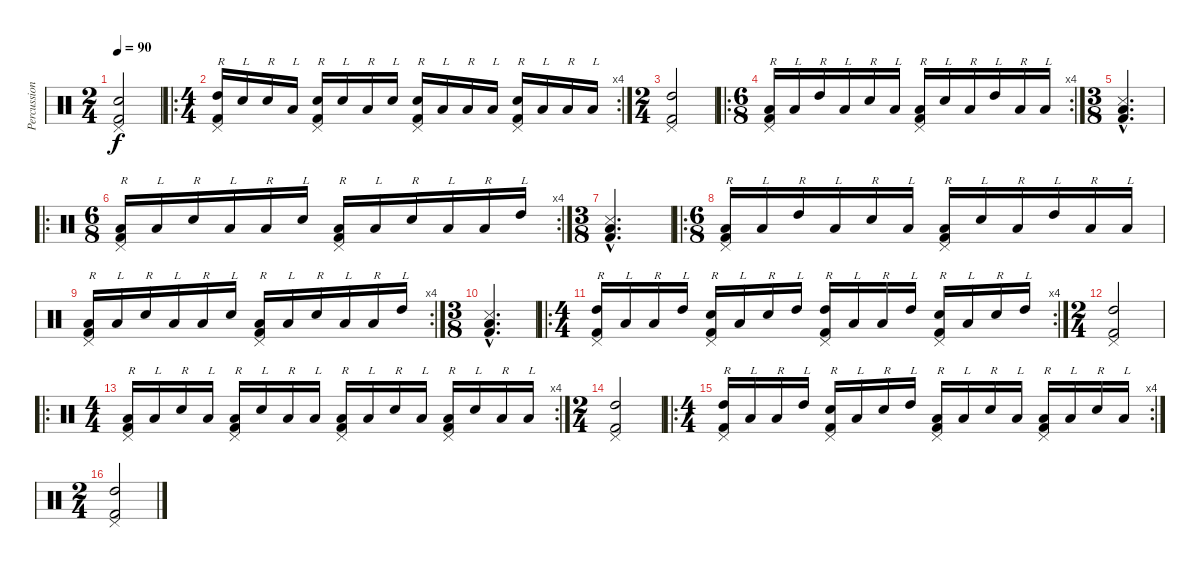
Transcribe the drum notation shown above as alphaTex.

\track ("Percussion" "Percussion") {instrument percussion}
\staff {score}
\articulation defaults
\ts (2 4)
\tempo 90
\clef neutral
\ks c
("Electric Snare (hit)" "Pedal Hi-Hat (hit)" "Kick (hit) 2").2{dy f} |
\ro
\rc 4
\ts (4 4)
("High Tom (hit)" "Pedal Hi-Hat (hit)" "Kick (hit) 2").16{txt "R"} "Electric Snare (hit)".16{txt "L"} "Electric Snare (hit)".16{txt "R"} "Low Floor Tom (hit)".16{txt "L"} ("Electric Snare (hit)" "Pedal Hi-Hat (hit)" "Kick (hit) 2").16{txt "R"} "Electric Snare (hit)".16{txt "L"} "Low Floor Tom (hit)".16{txt "R"} "Electric Snare (hit)".16{txt "L"} ("Electric Snare (hit)" "Pedal Hi-Hat (hit)" "Kick (hit) 2").16{txt "R"} "Low Floor Tom (hit)".16{txt "L"} "Low Floor Tom (hit)".16{txt "R"} "Low Floor Tom (hit)".16{txt "L"} ("Electric Snare (hit)" "Pedal Hi-Hat (hit)" "Kick (hit) 2").16{txt "R"} "Low Floor Tom (hit)".16{txt "L"} "Low Floor Tom (hit)".16{txt "R"} "Low Floor Tom (hit)".16{txt "L"} |
\ts (2 4)
("High Tom (hit)" "Pedal Hi-Hat (hit)" "Kick (hit) 2").2 |
\ro
\rc 4
\ts (6 8)
("Low Floor Tom (hit)" "Kick (hit) 2" "Pedal Hi-Hat (hit)").16{txt "R"} "Low Floor Tom (hit)".16{txt "L"} "High Tom (hit)".16{txt "R"} "Low Floor Tom (hit)".16{txt "L"} "Electric Snare (hit)".16{txt "R"} "Low Floor Tom (hit)".16{txt "L"} ("Low Floor Tom (hit)" "Kick (hit) 2" "Pedal Hi-Hat (hit)").16{txt "R"} "Electric Snare (hit)".16{txt "L"} "Low Floor Tom (hit)".16{txt "R"} "High Tom (hit)".16{txt "L"} "Low Floor Tom (hit)".16{txt "R"} "Low Floor Tom (hit)".16{txt "L"} |
\ts (3 8)
("Low Floor Tom (hit)"{hac} "Kick (hit) 2"{hac} "Metronome (hit)"{hac}).4{d} |
\ro
\rc 4
\ts (6 8)
("Low Floor Tom (hit)" "Kick (hit) 2" "Pedal Hi-Hat (hit)").16{txt "R"} "Low Floor Tom (hit)".16{txt "L"} "Electric Snare (hit)".16{txt "R"} "Low Floor Tom (hit)".16{txt "L"} "Low Floor Tom (hit)".16{txt "R"} "Electric Snare (hit)".16{txt "L"} ("Low Floor Tom (hit)" "Kick (hit) 2" "Pedal Hi-Hat (hit)").16{txt "R"} "Low Floor Tom (hit)".16{txt "L"} "Electric Snare (hit)".16{txt "R"} "Low Floor Tom (hit)".16{txt "L"} "Low Floor Tom (hit)".16{txt "R"} "High Tom (hit)".16{txt "L"} |
\ts (3 8)
("Low Floor Tom (hit)"{hac} "Kick (hit) 2"{hac} "Metronome (hit)"{hac}).4{d} |
\ro
\ts (6 8)
("Low Floor Tom (hit)" "Kick (hit) 2" "Pedal Hi-Hat (hit)").16{txt "R"} "Low Floor Tom (hit)".16{txt "L"} "High Tom (hit)".16{txt "R"} "Low Floor Tom (hit)".16{txt "L"} "Electric Snare (hit)".16{txt "R"} "Low Floor Tom (hit)".16{txt "L"} ("Low Floor Tom (hit)" "Kick (hit) 2" "Pedal Hi-Hat (hit)").16{txt "R"} "Electric Snare (hit)".16{txt "L"} "Low Floor Tom (hit)".16{txt "R"} "High Tom (hit)".16{txt "L"} "Low Floor Tom (hit)".16{txt "R"} "Low Floor Tom (hit)".16{txt "L"} |
\rc 4
("Low Floor Tom (hit)" "Kick (hit) 2" "Pedal Hi-Hat (hit)").16{txt "R"} "Low Floor Tom (hit)".16{txt "L"} "Electric Snare (hit)".16{txt "R"} "Low Floor Tom (hit)".16{txt "L"} "Low Floor Tom (hit)".16{txt "R"} "Electric Snare (hit)".16{txt "L"} ("Low Floor Tom (hit)" "Kick (hit) 2" "Pedal Hi-Hat (hit)").16{txt "R"} "Low Floor Tom (hit)".16{txt "L"} "Electric Snare (hit)".16{txt "R"} "Low Floor Tom (hit)".16{txt "L"} "Low Floor Tom (hit)".16{txt "R"} "High Tom (hit)".16{txt "L"} |
\ts (3 8)
("Low Floor Tom (hit)"{hac} "Kick (hit) 2"{hac} "Metronome (hit)"{hac}).4{d} |
\ro
\rc 4
\ts (4 4)
("High Tom (hit)" "Pedal Hi-Hat (hit)" "Kick (hit) 2").16{txt "R"} "Low Floor Tom (hit)".16{txt "L"} "Low Floor Tom (hit)".16{txt "R"} "High Tom (hit)".16{txt "L"} ("Electric Snare (hit)" "Pedal Hi-Hat (hit)" "Kick (hit) 2").16{txt "R"} "Low Floor Tom (hit)".16{txt "L"} "Electric Snare (hit)".16{txt "R"} "High Tom (hit)".16{txt "L"} ("High Tom (hit)" "Pedal Hi-Hat (hit)" "Kick (hit) 2").16{txt "R"} "Low Floor Tom (hit)".16{txt "L"} "Low Floor Tom (hit)".16{txt "R"} "High Tom (hit)".16{txt "L"} ("Electric Snare (hit)" "Pedal Hi-Hat (hit)" "Kick (hit) 2").16{txt "R"} "Low Floor Tom (hit)".16{txt "L"} "Electric Snare (hit)".16{txt "R"} "High Tom (hit)".16{txt "L"} |
\ts (2 4)
("High Tom (hit)" "Kick (hit) 2" "Pedal Hi-Hat (hit)").2 |
\ro
\rc 4
\ts (4 4)
("Low Floor Tom (hit)" "Pedal Hi-Hat (hit)" "Kick (hit) 2").16{txt "R"} "Low Floor Tom (hit)".16{txt "L"} "Electric Snare (hit)".16{txt "R"} "Low Floor Tom (hit)".16{txt "L"} ("Low Floor Tom (hit)" "Pedal Hi-Hat (hit)" "Kick (hit) 2").16{txt "R"} "Electric Snare (hit)".16{txt "L"} "Low Floor Tom (hit)".16{txt "R"} "Low Floor Tom (hit)".16{txt "L"} ("Low Floor Tom (hit)" "Pedal Hi-Hat (hit)" "Kick (hit) 2").16{txt "R"} "Low Floor Tom (hit)".16{txt "L"} "Electric Snare (hit)".16{txt "R"} "Low Floor Tom (hit)".16{txt "L"} ("Low Floor Tom (hit)" "Pedal Hi-Hat (hit)" "Kick (hit) 2").16{txt "R"} "Electric Snare (hit)".16{txt "L"} "Low Floor Tom (hit)".16{txt "R"} "Low Floor Tom (hit)".16{txt "L"} |
\ts (2 4)
("High Tom (hit)" "Kick (hit) 2" "Pedal Hi-Hat (hit)").2 |
\ro
\rc 4
\ts (4 4)
("High Tom (hit)" "Pedal Hi-Hat (hit)" "Kick (hit) 2").16{txt "R"} "Low Floor Tom (hit)".16{txt "L"} "Low Floor Tom (hit)".16{txt "R"} "High Tom (hit)".16{txt "L"} ("Electric Snare (hit)" "Pedal Hi-Hat (hit)" "Kick (hit) 2").16{txt "R"} "Low Floor Tom (hit)".16{txt "L"} "Electric Snare (hit)".16{txt "R"} "High Tom (hit)".16{txt "L"} ("Low Floor Tom (hit)" "Pedal Hi-Hat (hit)" "Kick (hit) 2").16{txt "R"} "Low Floor Tom (hit)".16{txt "L"} "Electric Snare (hit)".16{txt "R"} "Low Floor Tom (hit)".16{txt "L"} ("Low Floor Tom (hit)" "Pedal Hi-Hat (hit)" "Kick (hit) 2").16{txt "R"} "Low Floor Tom (hit)".16{txt "L"} "Electric Snare (hit)".16{txt "R"} "Low Floor Tom (hit)".16{txt "L"} |
\ts (2 4)
("High Tom (hit)" "Kick (hit) 2" "Pedal Hi-Hat (hit)").2
